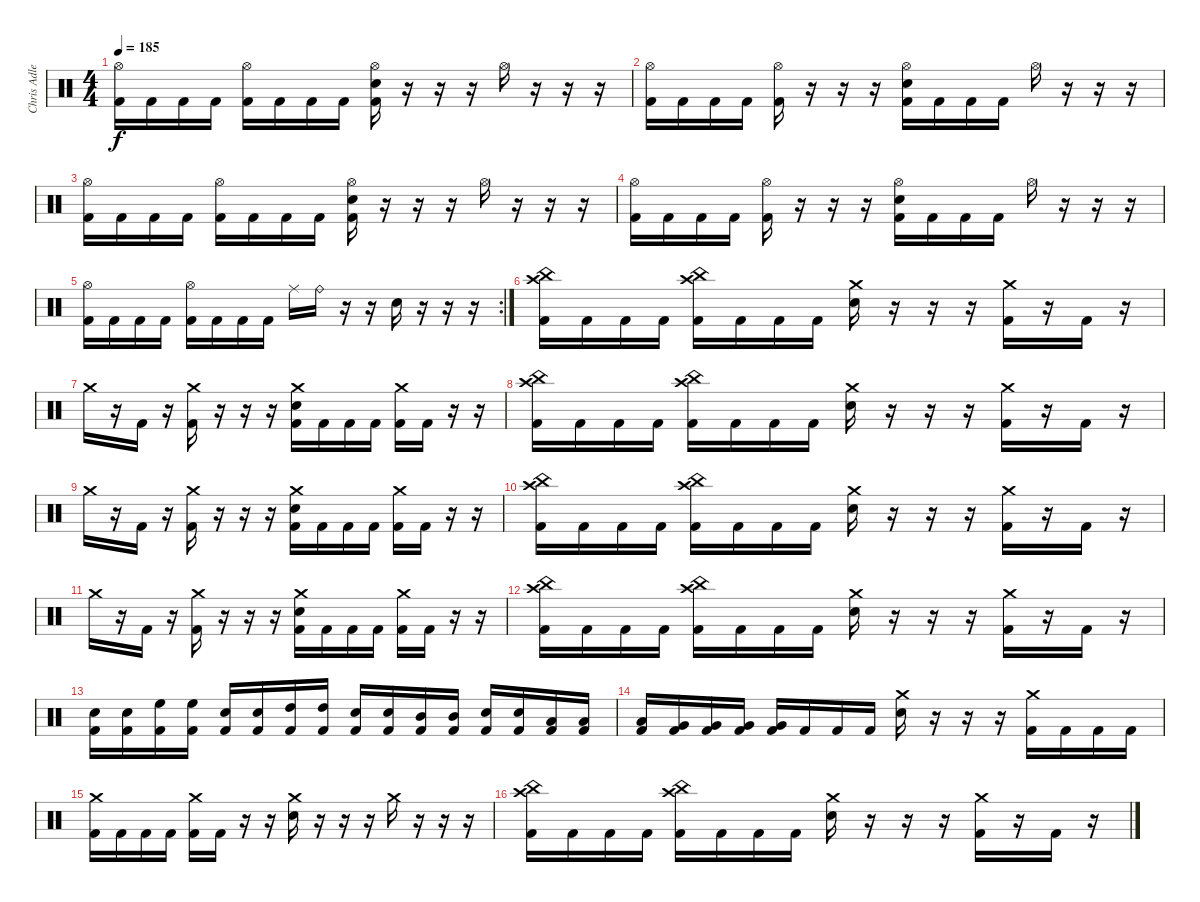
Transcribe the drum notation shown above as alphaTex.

\track ("Chris Adler" "Chris Adle") {instrument percussion}
\staff {score}
\articulation defaults
\ts (4 4)
\tempo 185
\clef neutral
\ks c
("Hi-Hat (open)" "Kick (hit) 2").16{dy f} "Kick (hit) 2".16 "Kick (hit) 2".16 "Kick (hit) 2".16 ("Hi-Hat (open)" "Kick (hit) 2").16 "Kick (hit) 2".16 "Kick (hit) 2".16 "Kick (hit) 2".16 ("Hi-Hat (open)" "Electric Snare (hit)" "Kick (hit) 2").16 r.16 r.16 r.16 "Hi-Hat (open)".16 r.16 r.16 r.16 |
("Hi-Hat (open)" "Kick (hit) 2").16 "Kick (hit) 2".16 "Kick (hit) 2".16 "Kick (hit) 2".16 ("Hi-Hat (open)" "Kick (hit) 2").16 r.16 r.16 r.16 ("Hi-Hat (open)" "Electric Snare (hit)" "Kick (hit) 2").16 "Kick (hit) 2".16 "Kick (hit) 2".16 "Kick (hit) 2".16 "Hi-Hat (open)".16 r.16 r.16 r.16 |
("Hi-Hat (open)" "Kick (hit) 2").16 "Kick (hit) 2".16 "Kick (hit) 2".16 "Kick (hit) 2".16 ("Hi-Hat (open)" "Kick (hit) 2").16 "Kick (hit) 2".16 "Kick (hit) 2".16 "Kick (hit) 2".16 ("Hi-Hat (open)" "Electric Snare (hit)" "Kick (hit) 2").16 r.16 r.16 r.16 "Hi-Hat (open)".16 r.16 r.16 r.16 |
("Hi-Hat (open)" "Kick (hit) 2").16 "Kick (hit) 2".16 "Kick (hit) 2".16 "Kick (hit) 2".16 ("Hi-Hat (open)" "Kick (hit) 2").16 r.16 r.16 r.16 ("Hi-Hat (open)" "Electric Snare (hit)" "Kick (hit) 2").16 "Kick (hit) 2".16 "Kick (hit) 2".16 "Kick (hit) 2".16 "Hi-Hat (open)".16 r.16 r.16 r.16 |
\rc 2
("Hi-Hat (open)" "Kick (hit) 2").16 "Kick (hit) 2".16 "Kick (hit) 2".16 "Kick (hit) 2".16 ("Hi-Hat (open)" "Kick (hit) 2").16 "Kick (hit) 2".16 "Kick (hit) 2".16 "Kick (hit) 2".16 "Ride (middle)".16 "Ride (bell)".16 r.16 r.16 "Electric Snare (hit)".16 r.16 r.16 r.16 |
("Crash high (hit)" "China (hit)" "Kick (hit) 2").16 "Kick (hit) 2".16 "Kick (hit) 2".16 "Kick (hit) 2".16 ("Crash high (hit)" "China (hit)" "Kick (hit) 2").16 "Kick (hit) 2".16 "Kick (hit) 2".16 "Kick (hit) 2".16 ("Crash medium (hit)" "Electric Snare (hit)").16 r.16 r.16 r.16 ("Crash medium (hit)" "Kick (hit) 2").16 r.16 "Kick (hit) 2".16 r.16 |
"Crash medium (hit)".16 r.16 "Kick (hit) 2".16 r.16 ("Crash medium (hit)" "Kick (hit) 2").16 r.16 r.16 r.16 ("Crash medium (hit)" "Electric Snare (hit)" "Kick (hit) 2").16 "Kick (hit) 2".16 "Kick (hit) 2".16 "Kick (hit) 2".16 ("Crash medium (hit)" "Kick (hit) 2").16 "Kick (hit) 2".16 r.16 r.16 |
("Crash high (hit)" "China (hit)" "Kick (hit) 2").16 "Kick (hit) 2".16 "Kick (hit) 2".16 "Kick (hit) 2".16 ("Crash high (hit)" "China (hit)" "Kick (hit) 2").16 "Kick (hit) 2".16 "Kick (hit) 2".16 "Kick (hit) 2".16 ("Crash medium (hit)" "Electric Snare (hit)").16 r.16 r.16 r.16 ("Crash medium (hit)" "Kick (hit) 2").16 r.16 "Kick (hit) 2".16 r.16 |
"Crash medium (hit)".16 r.16 "Kick (hit) 2".16 r.16 ("Crash medium (hit)" "Kick (hit) 2").16 r.16 r.16 r.16 ("Crash medium (hit)" "Electric Snare (hit)" "Kick (hit) 2").16 "Kick (hit) 2".16 "Kick (hit) 2".16 "Kick (hit) 2".16 ("Crash medium (hit)" "Kick (hit) 2").16 "Kick (hit) 2".16 r.16 r.16 |
("Crash high (hit)" "China (hit)" "Kick (hit) 2").16 "Kick (hit) 2".16 "Kick (hit) 2".16 "Kick (hit) 2".16 ("Crash high (hit)" "China (hit)" "Kick (hit) 2").16 "Kick (hit) 2".16 "Kick (hit) 2".16 "Kick (hit) 2".16 ("Crash medium (hit)" "Electric Snare (hit)").16 r.16 r.16 r.16 ("Crash medium (hit)" "Kick (hit) 2").16 r.16 "Kick (hit) 2".16 r.16 |
"Crash medium (hit)".16 r.16 "Kick (hit) 2".16 r.16 ("Crash medium (hit)" "Kick (hit) 2").16 r.16 r.16 r.16 ("Crash medium (hit)" "Electric Snare (hit)" "Kick (hit) 2").16 "Kick (hit) 2".16 "Kick (hit) 2".16 "Kick (hit) 2".16 ("Crash medium (hit)" "Kick (hit) 2").16 "Kick (hit) 2".16 r.16 r.16 |
("Crash high (hit)" "China (hit)" "Kick (hit) 2").16 "Kick (hit) 2".16 "Kick (hit) 2".16 "Kick (hit) 2".16 ("Crash high (hit)" "China (hit)" "Kick (hit) 2").16 "Kick (hit) 2".16 "Kick (hit) 2".16 "Kick (hit) 2".16 ("Crash medium (hit)" "Electric Snare (hit)").16 r.16 r.16 r.16 ("Crash medium (hit)" "Kick (hit) 2").16 r.16 "Kick (hit) 2".16 r.16 |
("Electric Snare (hit)" "Kick (hit) 2").16 ("Electric Snare (hit)" "Kick (hit) 2").16 ("High Floor Tom (hit)" "Kick (hit) 2").16 ("High Floor Tom (hit)" "Kick (hit) 2").16 ("Electric Snare (hit)" "Kick (hit) 2").16 ("Electric Snare (hit)" "Kick (hit) 2").16 ("High Tom (hit)" "Kick (hit) 2").16 ("High Tom (hit)" "Kick (hit) 2").16 ("Electric Snare (hit)" "Kick (hit) 2").16 ("Electric Snare (hit)" "Kick (hit) 2").16 ("Mid Tom (hit)" "Kick (hit) 2").16 ("Mid Tom (hit)" "Kick (hit) 2").16 ("Electric Snare (hit)" "Kick (hit) 2").16 ("Electric Snare (hit)" "Kick (hit) 2").16 ("Low Tom (hit)" "Kick (hit) 2").16 ("Low Tom (hit)" "Kick (hit) 2").16 |
("Low Tom (hit)" "Kick (hit) 2").16 ("Very Low Tom (hit)" "Kick (hit) 2").16 ("Very Low Tom (hit)" "Kick (hit) 2").16 ("Very Low Tom (hit)" "Kick (hit) 2").16 ("Very Low Tom (hit)" "Kick (hit) 2").16 "Kick (hit) 2".16 "Kick (hit) 2".16 "Kick (hit) 2".16 ("Crash medium (hit)" "Electric Snare (hit)").16 r.16 r.16 r.16 ("Crash medium (hit)" "Kick (hit) 2").16 "Kick (hit) 2".16 "Kick (hit) 2".16 "Kick (hit) 2".16 |
("Crash medium (hit)" "Kick (hit) 2").16 "Kick (hit) 2".16 "Kick (hit) 2".16 "Kick (hit) 2".16 ("Crash medium (hit)" "Kick (hit) 2").16 "Kick (hit) 2".16 r.16 r.16 ("Crash medium (hit)" "Electric Snare (hit)").16 r.16 r.16 r.16 "Crash medium (hit)".16 r.16 r.16 r.16 |
("Crash high (hit)" "China (hit)" "Kick (hit) 2").16 "Kick (hit) 2".16 "Kick (hit) 2".16 "Kick (hit) 2".16 ("Crash high (hit)" "China (hit)" "Kick (hit) 2").16 "Kick (hit) 2".16 "Kick (hit) 2".16 "Kick (hit) 2".16 ("Crash medium (hit)" "Electric Snare (hit)").16 r.16 r.16 r.16 ("Crash medium (hit)" "Kick (hit) 2").16 r.16 "Kick (hit) 2".16 r.16
